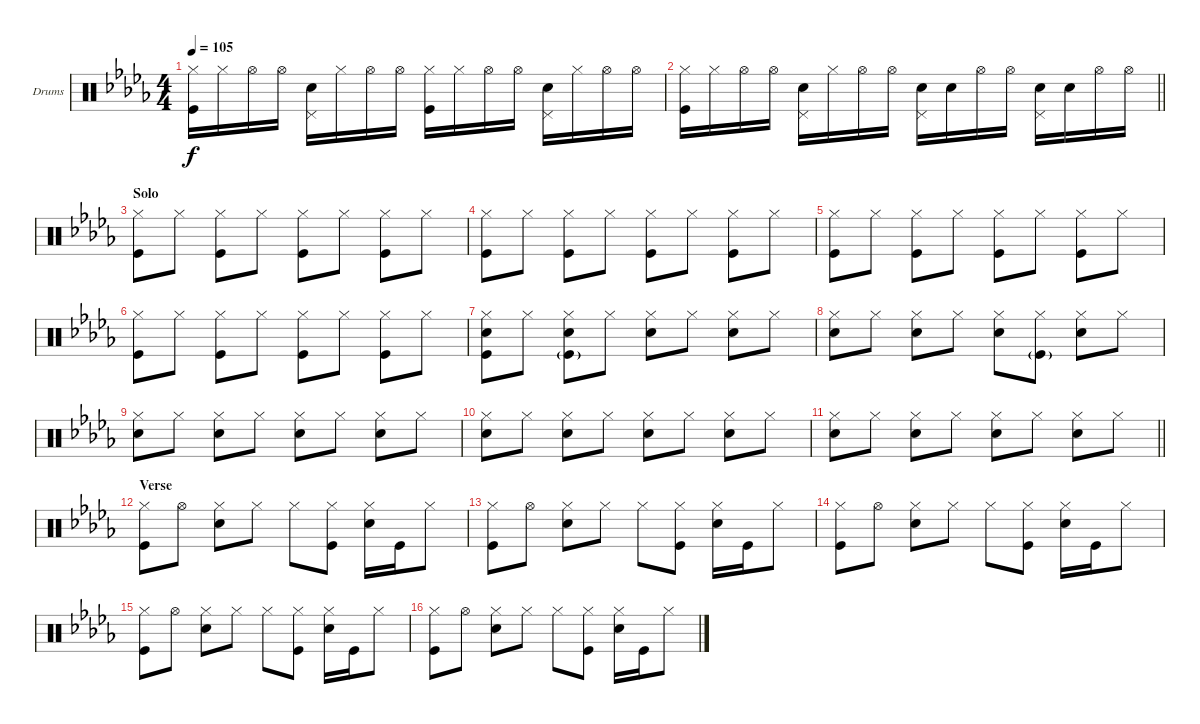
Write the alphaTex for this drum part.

\bracketExtendMode groupsimilarinstruments
\firstSystemTrackNameOrientation horizontal
\otherSystemsTrackNameOrientation horizontal
\track ("Fabrizio" "Drums") {instrument percussion}
\staff {score}
\articulation defaults
\ts (4 4)
\tempo 105
\clef neutral
\ks db
("Hi-Hat (closed)" "Kick (hit)").16{dy f} "Hi-Hat (closed)".16 "Hi-Hat (open)".16 "Hi-Hat (open)".16 ("Pedal Hi-Hat (hit)" "Snare (hit) 2").16 "Hi-Hat (closed)".16 "Hi-Hat (open)".16 "Hi-Hat (open)".16 ("Hi-Hat (closed)" "Kick (hit)").16 "Hi-Hat (closed)".16 "Hi-Hat (open)".16 "Hi-Hat (open)".16 ("Pedal Hi-Hat (hit)" "Snare (hit) 2").16 "Hi-Hat (closed)".16 "Hi-Hat (open)".16 "Hi-Hat (open)".16 |
\barLineRight lightlight
("Hi-Hat (closed)" "Kick (hit)").16 "Hi-Hat (closed)".16 "Hi-Hat (open)".16 "Hi-Hat (open)".16 ("Pedal Hi-Hat (hit)" "Snare (hit) 2").16 "Hi-Hat (closed)".16 "Hi-Hat (open)".16 "Hi-Hat (open)".16 ("Pedal Hi-Hat (hit)" "Snare (hit) 2").16 "Snare (hit) 2".16 "Hi-Hat (open)".16 "Hi-Hat (open)".16 ("Pedal Hi-Hat (hit)" "Snare (hit) 2").16 "Snare (hit) 2".16 "Hi-Hat (open)".16 "Hi-Hat (open)".16 |
\section ("" "Solo")
("Hi-Hat (closed)" "Kick (hit)").8 "Hi-Hat (closed)".8 ("Hi-Hat (closed)" "Kick (hit)").8 "Hi-Hat (closed)".8 ("Hi-Hat (closed)" "Kick (hit)").8 "Hi-Hat (closed)".8 ("Hi-Hat (closed)" "Kick (hit)").8 "Hi-Hat (closed)".8 |
("Hi-Hat (closed)" "Kick (hit)").8 "Hi-Hat (closed)".8 ("Hi-Hat (closed)" "Kick (hit)").8 "Hi-Hat (closed)".8 ("Hi-Hat (closed)" "Kick (hit)").8 "Hi-Hat (closed)".8 ("Hi-Hat (closed)" "Kick (hit)").8 "Hi-Hat (closed)".8 |
("Hi-Hat (closed)" "Kick (hit)").8 "Hi-Hat (closed)".8 ("Hi-Hat (closed)" "Kick (hit)").8 "Hi-Hat (closed)".8 ("Hi-Hat (closed)" "Kick (hit)").8 "Hi-Hat (closed)".8 ("Hi-Hat (closed)" "Kick (hit)").8 "Hi-Hat (closed)".8 |
("Hi-Hat (closed)" "Kick (hit)").8 "Hi-Hat (closed)".8 ("Hi-Hat (closed)" "Kick (hit)").8 "Hi-Hat (closed)".8 ("Hi-Hat (closed)" "Kick (hit)").8 "Hi-Hat (closed)".8 ("Hi-Hat (closed)" "Kick (hit)").8 "Hi-Hat (closed)".8 |
("Hi-Hat (closed)" "Snare (hit) 2" "Kick (hit)").8 "Hi-Hat (closed)".8 ("Hi-Hat (closed)" "Snare (hit) 2" "Kick (hit)"{g}).8 "Hi-Hat (closed)".8 ("Hi-Hat (closed)" "Snare (hit) 2").8 "Hi-Hat (closed)".8 ("Hi-Hat (closed)" "Snare (hit) 2").8 "Hi-Hat (closed)".8 |
("Hi-Hat (closed)" "Snare (hit) 2").8 "Hi-Hat (closed)".8 ("Hi-Hat (closed)" "Snare (hit) 2").8 "Hi-Hat (closed)".8 ("Hi-Hat (closed)" "Snare (hit) 2").8 ("Hi-Hat (closed)" "Kick (hit)"{g}).8 ("Hi-Hat (closed)" "Snare (hit) 2").8 "Hi-Hat (closed)".8 |
("Hi-Hat (closed)" "Snare (hit) 2").8 "Hi-Hat (closed)".8 ("Hi-Hat (closed)" "Snare (hit) 2").8 "Hi-Hat (closed)".8 ("Hi-Hat (closed)" "Snare (hit) 2").8 "Hi-Hat (closed)".8 ("Hi-Hat (closed)" "Snare (hit) 2").8 "Hi-Hat (closed)".8 |
("Hi-Hat (closed)" "Snare (hit) 2").8 "Hi-Hat (closed)".8 ("Hi-Hat (closed)" "Snare (hit) 2").8 "Hi-Hat (closed)".8 ("Hi-Hat (closed)" "Snare (hit) 2").8 "Hi-Hat (closed)".8 ("Hi-Hat (closed)" "Snare (hit) 2").8 "Hi-Hat (closed)".8 |
\barLineRight lightlight
("Hi-Hat (closed)" "Snare (hit) 2").8 "Hi-Hat (closed)".8 ("Hi-Hat (closed)" "Snare (hit) 2").8 "Hi-Hat (closed)".8 ("Hi-Hat (closed)" "Snare (hit) 2").8 "Hi-Hat (closed)".8 ("Hi-Hat (closed)" "Snare (hit) 2").8 "Hi-Hat (closed)".8 |
\section ("" "Verse")
("Hi-Hat (closed)" "Kick (hit)").8 "Hi-Hat (open)".8 ("Hi-Hat (closed)" "Snare (hit) 2").8 "Hi-Hat (closed)".8 "Hi-Hat (closed)".8 ("Hi-Hat (closed)" "Kick (hit)").8 ("Hi-Hat (closed)" "Snare (hit) 2").16 "Kick (hit)".16 "Hi-Hat (closed)".8 |
("Hi-Hat (closed)" "Kick (hit)").8 "Hi-Hat (open)".8 ("Hi-Hat (closed)" "Snare (hit) 2").8 "Hi-Hat (closed)".8 "Hi-Hat (closed)".8 ("Hi-Hat (closed)" "Kick (hit)").8 ("Hi-Hat (closed)" "Snare (hit) 2").16 "Kick (hit)".16 "Hi-Hat (closed)".8 |
("Hi-Hat (closed)" "Kick (hit)").8 "Hi-Hat (open)".8 ("Hi-Hat (closed)" "Snare (hit) 2").8 "Hi-Hat (closed)".8 "Hi-Hat (closed)".8 ("Hi-Hat (closed)" "Kick (hit)").8 ("Hi-Hat (closed)" "Snare (hit) 2").16 "Kick (hit)".16 "Hi-Hat (closed)".8 |
("Hi-Hat (closed)" "Kick (hit)").8 "Hi-Hat (open)".8 ("Hi-Hat (closed)" "Snare (hit) 2").8 "Hi-Hat (closed)".8 "Hi-Hat (closed)".8 ("Hi-Hat (closed)" "Kick (hit)").8 ("Hi-Hat (closed)" "Snare (hit) 2").16 "Kick (hit)".16 "Hi-Hat (closed)".8 |
("Hi-Hat (closed)" "Kick (hit)").8 "Hi-Hat (open)".8 ("Hi-Hat (closed)" "Snare (hit) 2").8 "Hi-Hat (closed)".8 "Hi-Hat (closed)".8 ("Hi-Hat (closed)" "Kick (hit)").8 ("Hi-Hat (closed)" "Snare (hit) 2").16 "Kick (hit)".16 "Hi-Hat (closed)".8
